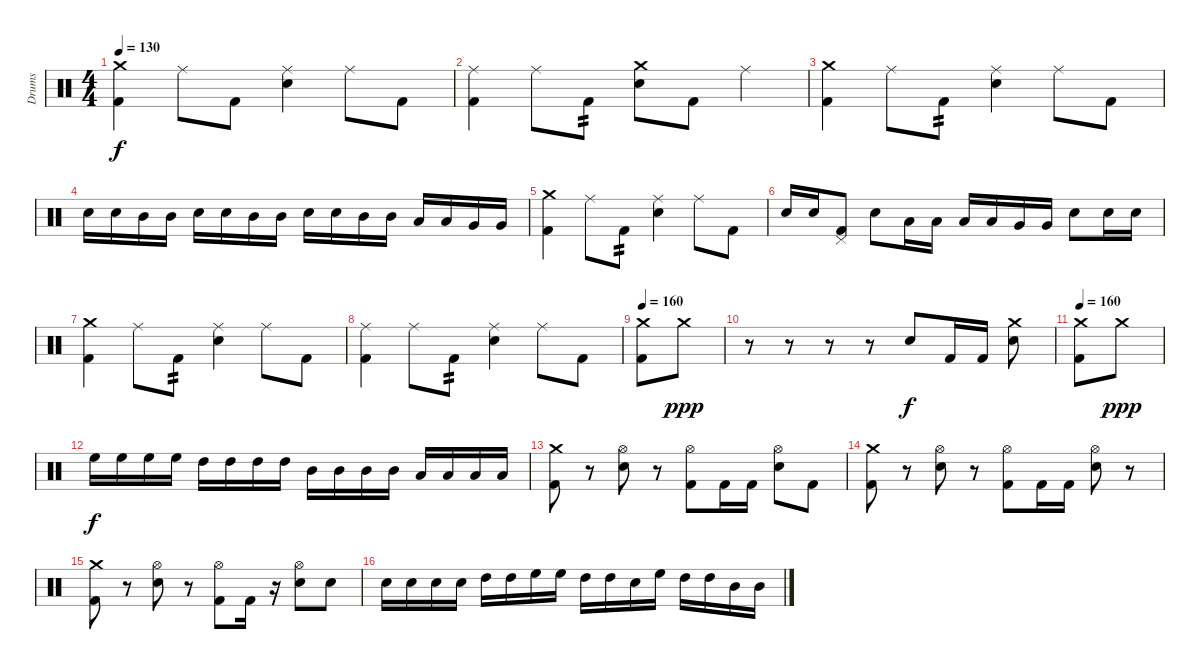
\track ("Drums" "Drums") {instrument percussion}
\staff {score}
\articulation defaults
\ts (4 4)
\tempo 130
\clef neutral
\ks c
("Crash medium (hit)" "Kick (hit) 2").4{dy f} "Ride (middle)".8 "Kick (hit) 2".8 ("Ride (middle)" "Snare (hit) 2").4 "Ride (middle)".8 "Kick (hit) 2".8 |
("Ride (middle)" "Kick (hit) 2").4 "Ride (middle)".8 "Kick (hit) 2".8{tp 2} ("Crash medium (hit)" "Snare (hit) 2").8 "Kick (hit) 2".8 "Ride (middle)".4 |
("Crash medium (hit)" "Kick (hit) 2").4 "Ride (middle)".8 "Kick (hit) 2".8{tp 2} ("Ride (middle)" "Snare (hit) 2").4 "Ride (middle)".8 "Kick (hit) 2".8 |
"Snare (hit) 2".16 "Snare (hit) 2".16 "Mid Tom (hit)".16 "Mid Tom (hit)".16 "Snare (hit) 2".16 "Snare (hit) 2".16 "Mid Tom (hit)".16 "Mid Tom (hit)".16 "Snare (hit) 2".16 "Snare (hit) 2".16 "Mid Tom (hit)".16 "Mid Tom (hit)".16 "Low Tom (hit)".16 "Low Tom (hit)".16 "Very Low Tom (hit)".16 "Very Low Tom (hit)".16 |
("Crash medium (hit)" "Kick (hit) 2").4 "Ride (middle)".8 "Kick (hit) 2".8{tp 2} ("Ride (middle)" "Snare (hit) 2").4 "Ride (middle)".8 "Kick (hit) 2".8 |
"Snare (hit) 2".16 "Snare (hit) 2".16 ("Pedal Hi-Hat (hit)" "Kick (hit) 2").8 "Snare (hit) 2".8 "Low Tom (hit)".16 "Low Tom (hit)".16 "Low Tom (hit)".16 "Low Tom (hit)".16 "Very Low Tom (hit)".16 "Very Low Tom (hit)".16 "Snare (hit) 2".8 "Snare (hit) 2".16 "Snare (hit) 2".16 |
("Crash medium (hit)" "Kick (hit) 2").4 "Ride (middle)".8 "Kick (hit) 2".8{tp 2} ("Ride (middle)" "Snare (hit) 2").4 "Ride (middle)".8 "Kick (hit) 2".8 |
("Ride (middle)" "Kick (hit) 2").4 "Ride (middle)".8 "Kick (hit) 2".8{tp 2} ("Ride (middle)" "Snare (hit) 2").4 "Ride (middle)".8 "Kick (hit) 2".8 |
\tempo 160
("Crash medium (hit)" "Kick (hit) 2").8 "Crash medium (hit)".8{dy ppp} |
r.8 r.8 r.8 r.8 "Snare (hit) 2".8{dy f} "Kick (hit) 2".16 "Kick (hit) 2".16 ("Crash medium (hit)" "Snare (hit) 2").8 |
\tempo 160
("Crash medium (hit)" "Kick (hit) 2").8 "Crash medium (hit)".8{dy ppp} |
"High Floor Tom (hit)".16{dy f} "High Floor Tom (hit)".16 "High Floor Tom (hit)".16 "High Floor Tom (hit)".16 "High Tom (hit)".16 "High Tom (hit)".16 "High Tom (hit)".16 "High Tom (hit)".16 "Mid Tom (hit)".16 "Mid Tom (hit)".16 "Mid Tom (hit)".16 "Mid Tom (hit)".16 "Low Tom (hit)".16 "Low Tom (hit)".16 "Low Tom (hit)".16 "Low Tom (hit)".16 |
("Crash medium (hit)" "Kick (hit) 2").8 r.8 ("Hi-Hat (open)" "Snare (hit) 2").8 r.8 ("Hi-Hat (open)" "Kick (hit) 2").8 "Kick (hit) 2".16 "Kick (hit) 2".16 ("Hi-Hat (open)" "Snare (hit) 2").8 "Kick (hit) 2".8 |
("Crash medium (hit)" "Kick (hit) 2").8 r.8 ("Hi-Hat (open)" "Snare (hit) 2").8 r.8 ("Hi-Hat (open)" "Kick (hit) 2").8 "Kick (hit) 2".16 "Kick (hit) 2".16 ("Hi-Hat (open)" "Snare (hit) 2").8 r.8 |
("Crash medium (hit)" "Kick (hit) 2").8 r.8 ("Hi-Hat (open)" "Snare (hit) 2").8 r.8 ("Hi-Hat (open)" "Kick (hit) 2").8 "Kick (hit) 2".16 r.16 ("Hi-Hat (open)" "Snare (hit) 2").8 "Snare (hit) 2".8 |
"Snare (hit) 2".16 "Snare (hit) 2".16 "Snare (hit) 2".16 "Snare (hit) 2".16 "High Tom (hit)".16 "High Tom (hit)".16 "High Floor Tom (hit)".16 "High Floor Tom (hit)".16 "High Tom (hit)".16 "High Tom (hit)".16 "Snare (hit) 2".16 "High Floor Tom (hit)".16 "High Tom (hit)".16 "High Tom (hit)".16 "Mid Tom (hit)".16 "Mid Tom (hit)".16
